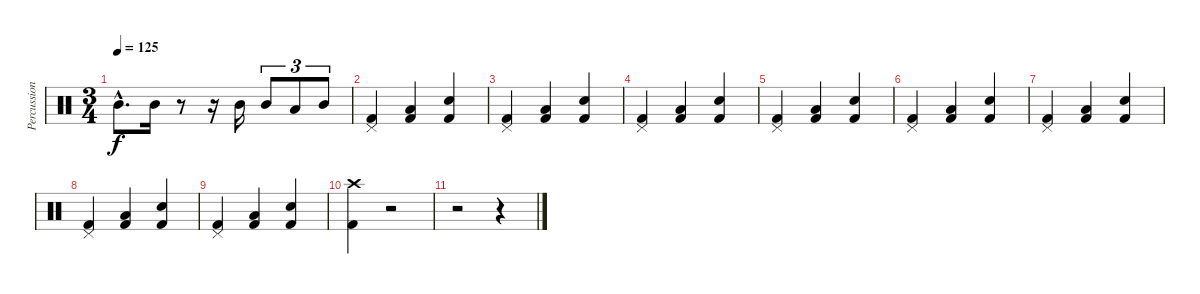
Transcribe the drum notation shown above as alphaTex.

\track ("Percussion" "Percussion") {instrument percussion}
\staff {score}
\articulation defaults
\ts (3 4)
\tempo 125
\clef neutral
\ks c "Mid Tom (hit)"{hac}.8{d dy f} "Mid Tom (hit)".16
r.8 r.16 "Mid Tom (hit)".16 "Mid Tom (hit)".8{tu (3 2)} "Low Tom (hit)".8{tu (3 2)} "Mid Tom (hit)".8{tu (3 2)} |
("Pedal Hi-Hat (hit)" "Kick (hit) 2").4 ("Low Tom (hit)" "Kick (hit) 2").4 ("Snare (hit) 2" "Kick (hit) 2").4 |
("Pedal Hi-Hat (hit)" "Kick (hit) 2").4 ("Low Tom (hit)" "Kick (hit) 2").4 ("Snare (hit) 2" "Kick (hit) 2").4 |
("Pedal Hi-Hat (hit)" "Kick (hit) 2").4 ("Low Tom (hit)" "Kick (hit) 2").4 ("Snare (hit) 2" "Kick (hit) 2").4 |
("Pedal Hi-Hat (hit)" "Kick (hit) 2").4 ("Low Tom (hit)" "Kick (hit) 2").4 ("Snare (hit) 2" "Kick (hit) 2").4 |
("Pedal Hi-Hat (hit)" "Kick (hit) 2").4 ("Low Tom (hit)" "Kick (hit) 2").4 ("Snare (hit) 2" "Kick (hit) 2").4 |
("Pedal Hi-Hat (hit)" "Kick (hit) 2").4 ("Low Tom (hit)" "Kick (hit) 2").4 ("Snare (hit) 2" "Kick (hit) 2").4 |
("Pedal Hi-Hat (hit)" "Kick (hit) 2").4 ("Low Tom (hit)" "Kick (hit) 2").4 ("Snare (hit) 2" "Kick (hit) 2").4 |
("Pedal Hi-Hat (hit)" "Kick (hit) 2").4 ("Low Tom (hit)" "Kick (hit) 2").4 ("Snare (hit) 2" "Kick (hit) 2").4 |
("Crash high (hit)" "Kick (hit) 2").4 r.2 |
r.2 r.4
